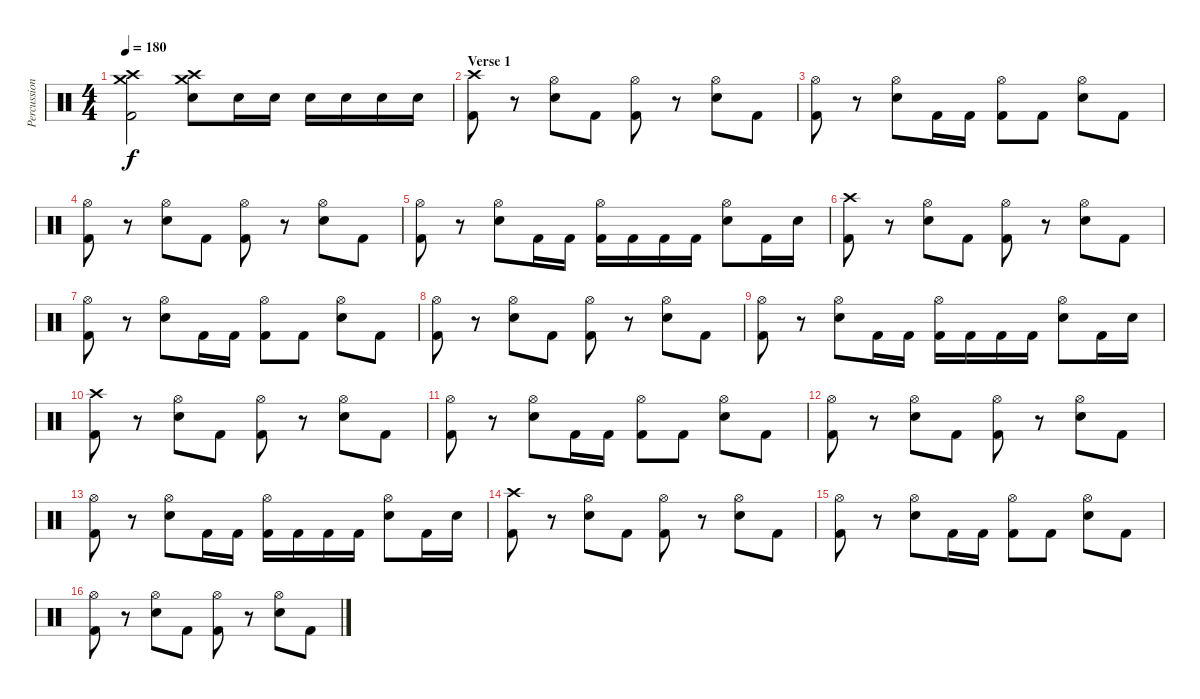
\track ("Percussion" "Percussion") {instrument percussion}
\staff {score}
\articulation defaults
\ts (4 4)
\tempo 180
\clef neutral
\ks c
("Crash high (hit)" "Crash medium (hit)" "Kick (hit) 2").2{dy f} ("Crash high (hit)" "Crash medium (hit)" "Electric Snare (hit)").8 "Electric Snare (hit)".16 "Electric Snare (hit)".16 "Electric Snare (hit)".16 "Electric Snare (hit)".16 "Electric Snare (hit)".16 "Electric Snare (hit)".16 |
\section ("" "Verse 1")
("Crash high (hit)" "Kick (hit) 2").8 r.8 ("Hi-Hat (open)" "Electric Snare (hit)").8 "Kick (hit) 2".8 ("Hi-Hat (open)" "Kick (hit) 2").8 r.8 ("Hi-Hat (open)" "Electric Snare (hit)").8 "Kick (hit) 2".8 |
("Hi-Hat (open)" "Kick (hit) 2").8 r.8 ("Hi-Hat (open)" "Electric Snare (hit)").8 "Kick (hit) 2".16 "Kick (hit) 2".16 ("Hi-Hat (open)" "Kick (hit) 2").8 "Kick (hit) 2".8 ("Hi-Hat (open)" "Electric Snare (hit)").8 "Kick (hit) 2".8 |
("Hi-Hat (open)" "Kick (hit) 2").8 r.8 ("Hi-Hat (open)" "Electric Snare (hit)").8 "Kick (hit) 2".8 ("Hi-Hat (open)" "Kick (hit) 2").8 r.8 ("Hi-Hat (open)" "Electric Snare (hit)").8 "Kick (hit) 2".8 |
("Hi-Hat (open)" "Kick (hit) 2").8 r.8 ("Hi-Hat (open)" "Electric Snare (hit)").8 "Kick (hit) 2".16 "Kick (hit) 2".16 ("Hi-Hat (open)" "Kick (hit) 2").16 "Kick (hit) 2".16 "Kick (hit) 2".16 "Kick (hit) 2".16 ("Hi-Hat (open)" "Electric Snare (hit)").8 "Kick (hit) 2".16 "Electric Snare (hit)".16 |
("Crash high (hit)" "Kick (hit) 2").8 r.8 ("Hi-Hat (open)" "Electric Snare (hit)").8 "Kick (hit) 2".8 ("Hi-Hat (open)" "Kick (hit) 2").8 r.8 ("Hi-Hat (open)" "Electric Snare (hit)").8 "Kick (hit) 2".8 |
("Hi-Hat (open)" "Kick (hit) 2").8 r.8 ("Hi-Hat (open)" "Electric Snare (hit)").8 "Kick (hit) 2".16 "Kick (hit) 2".16 ("Hi-Hat (open)" "Kick (hit) 2").8 "Kick (hit) 2".8 ("Hi-Hat (open)" "Electric Snare (hit)").8 "Kick (hit) 2".8 |
("Hi-Hat (open)" "Kick (hit) 2").8 r.8 ("Hi-Hat (open)" "Electric Snare (hit)").8 "Kick (hit) 2".8 ("Hi-Hat (open)" "Kick (hit) 2").8 r.8 ("Hi-Hat (open)" "Electric Snare (hit)").8 "Kick (hit) 2".8 |
("Hi-Hat (open)" "Kick (hit) 2").8 r.8 ("Hi-Hat (open)" "Electric Snare (hit)").8 "Kick (hit) 2".16 "Kick (hit) 2".16 ("Hi-Hat (open)" "Kick (hit) 2").16 "Kick (hit) 2".16 "Kick (hit) 2".16 "Kick (hit) 2".16 ("Hi-Hat (open)" "Electric Snare (hit)").8 "Kick (hit) 2".16 "Electric Snare (hit)".16 |
("Crash high (hit)" "Kick (hit) 2").8 r.8 ("Hi-Hat (open)" "Electric Snare (hit)").8 "Kick (hit) 2".8 ("Hi-Hat (open)" "Kick (hit) 2").8 r.8 ("Hi-Hat (open)" "Electric Snare (hit)").8 "Kick (hit) 2".8 |
("Hi-Hat (open)" "Kick (hit) 2").8 r.8 ("Hi-Hat (open)" "Electric Snare (hit)").8 "Kick (hit) 2".16 "Kick (hit) 2".16 ("Hi-Hat (open)" "Kick (hit) 2").8 "Kick (hit) 2".8 ("Hi-Hat (open)" "Electric Snare (hit)").8 "Kick (hit) 2".8 |
("Hi-Hat (open)" "Kick (hit) 2").8 r.8 ("Hi-Hat (open)" "Electric Snare (hit)").8 "Kick (hit) 2".8 ("Hi-Hat (open)" "Kick (hit) 2").8 r.8 ("Hi-Hat (open)" "Electric Snare (hit)").8 "Kick (hit) 2".8 |
("Hi-Hat (open)" "Kick (hit) 2").8 r.8 ("Hi-Hat (open)" "Electric Snare (hit)").8 "Kick (hit) 2".16 "Kick (hit) 2".16 ("Hi-Hat (open)" "Kick (hit) 2").16 "Kick (hit) 2".16 "Kick (hit) 2".16 "Kick (hit) 2".16 ("Hi-Hat (open)" "Electric Snare (hit)").8 "Kick (hit) 2".16 "Electric Snare (hit)".16 |
("Crash high (hit)" "Kick (hit) 2").8 r.8 ("Hi-Hat (open)" "Electric Snare (hit)").8 "Kick (hit) 2".8 ("Hi-Hat (open)" "Kick (hit) 2").8 r.8 ("Hi-Hat (open)" "Electric Snare (hit)").8 "Kick (hit) 2".8 |
("Hi-Hat (open)" "Kick (hit) 2").8 r.8 ("Hi-Hat (open)" "Electric Snare (hit)").8 "Kick (hit) 2".16 "Kick (hit) 2".16 ("Hi-Hat (open)" "Kick (hit) 2").8 "Kick (hit) 2".8 ("Hi-Hat (open)" "Electric Snare (hit)").8 "Kick (hit) 2".8 |
("Hi-Hat (open)" "Kick (hit) 2").8 r.8 ("Hi-Hat (open)" "Electric Snare (hit)").8 "Kick (hit) 2".8 ("Hi-Hat (open)" "Kick (hit) 2").8 r.8 ("Hi-Hat (open)" "Electric Snare (hit)").8 "Kick (hit) 2".8
